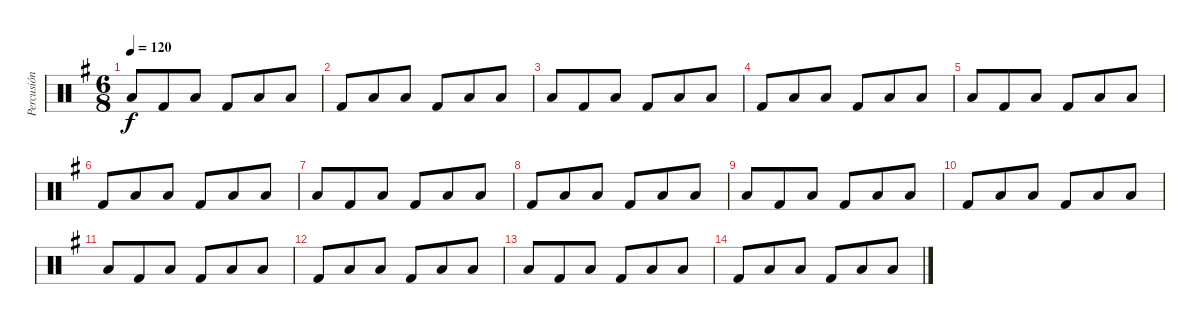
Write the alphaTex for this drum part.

\track ("Percusión" "Percusión") {instrument percussion}
\staff {score}
\articulation defaults
\ts (6 8)
\tempo 120
\clef neutral
\ks g "Low Tom (hit)".8{dy f} "Kick (hit) 2".8 "Low Tom (hit)".8 "Kick (hit) 2".8 "Low Tom (hit)".8 "Low Tom (hit)".8
|
"Kick (hit) 2".8 "Low Tom (hit)".8 "Low Tom (hit)".8 "Kick (hit) 2".8 "Low Tom (hit)".8 "Low Tom (hit)".8 |
"Low Tom (hit)".8 "Kick (hit) 2".8 "Low Tom (hit)".8 "Kick (hit) 2".8 "Low Tom (hit)".8 "Low Tom (hit)".8 |
"Kick (hit) 2".8 "Low Tom (hit)".8 "Low Tom (hit)".8 "Kick (hit) 2".8 "Low Tom (hit)".8 "Low Tom (hit)".8 |
"Low Tom (hit)".8 "Kick (hit) 2".8 "Low Tom (hit)".8 "Kick (hit) 2".8 "Low Tom (hit)".8 "Low Tom (hit)".8 |
"Kick (hit) 2".8 "Low Tom (hit)".8 "Low Tom (hit)".8 "Kick (hit) 2".8 "Low Tom (hit)".8 "Low Tom (hit)".8 |
"Low Tom (hit)".8 "Kick (hit) 2".8 "Low Tom (hit)".8 "Kick (hit) 2".8 "Low Tom (hit)".8 "Low Tom (hit)".8 |
"Kick (hit) 2".8 "Low Tom (hit)".8 "Low Tom (hit)".8 "Kick (hit) 2".8 "Low Tom (hit)".8 "Low Tom (hit)".8 |
"Low Tom (hit)".8 "Kick (hit) 2".8 "Low Tom (hit)".8 "Kick (hit) 2".8 "Low Tom (hit)".8 "Low Tom (hit)".8 |
"Kick (hit) 2".8 "Low Tom (hit)".8 "Low Tom (hit)".8 "Kick (hit) 2".8 "Low Tom (hit)".8 "Low Tom (hit)".8 |
"Low Tom (hit)".8 "Kick (hit) 2".8 "Low Tom (hit)".8 "Kick (hit) 2".8 "Low Tom (hit)".8 "Low Tom (hit)".8 |
"Kick (hit) 2".8 "Low Tom (hit)".8 "Low Tom (hit)".8 "Kick (hit) 2".8 "Low Tom (hit)".8 "Low Tom (hit)".8 |
"Low Tom (hit)".8 "Kick (hit) 2".8 "Low Tom (hit)".8 "Kick (hit) 2".8 "Low Tom (hit)".8 "Low Tom (hit)".8 |
"Kick (hit) 2".8 "Low Tom (hit)".8 "Low Tom (hit)".8 "Kick (hit) 2".8 "Low Tom (hit)".8 "Low Tom (hit)".8
